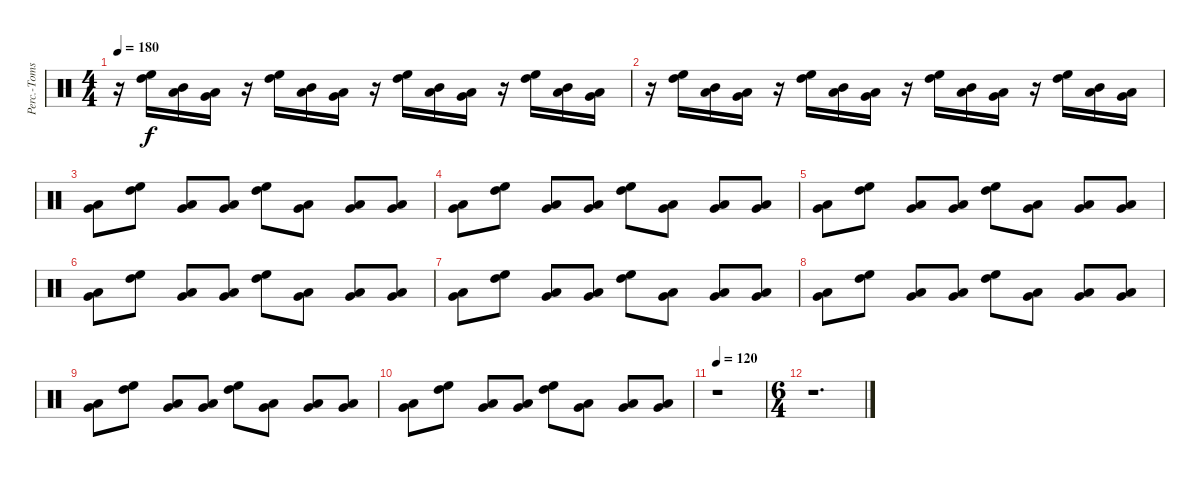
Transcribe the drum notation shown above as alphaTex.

\track ("Perc.-Toms " "Perc.-Toms") {instrument percussion}
\staff {score}
\articulation defaults
\ts (4 4)
\tempo 180
\clef neutral
\ks c
r.16{dy f} ("High Floor Tom (hit)" "High Tom (hit)").16 ("Mid Tom (hit)" "Low Tom (hit)").16 ("Very Low Tom (hit)" "Low Floor Tom (hit)").16 r.16 ("High Floor Tom (hit)" "High Tom (hit)").16 ("Mid Tom (hit)" "Low Tom (hit)").16 ("Very Low Tom (hit)" "Low Floor Tom (hit)").16 r.16 ("High Floor Tom (hit)" "High Tom (hit)").16 ("Mid Tom (hit)" "Low Tom (hit)").16 ("Very Low Tom (hit)" "Low Floor Tom (hit)").16 r.16 ("High Floor Tom (hit)" "High Tom (hit)").16 ("Mid Tom (hit)" "Low Tom (hit)").16 ("Very Low Tom (hit)" "Low Floor Tom (hit)").16 |
r.16 ("High Floor Tom (hit)" "High Tom (hit)").16 ("Mid Tom (hit)" "Low Tom (hit)").16 ("Very Low Tom (hit)" "Low Floor Tom (hit)").16 r.16 ("High Floor Tom (hit)" "High Tom (hit)").16 ("Mid Tom (hit)" "Low Tom (hit)").16 ("Very Low Tom (hit)" "Low Floor Tom (hit)").16 r.16 ("High Floor Tom (hit)" "High Tom (hit)").16 ("Mid Tom (hit)" "Low Tom (hit)").16 ("Very Low Tom (hit)" "Low Floor Tom (hit)").16 r.16 ("High Floor Tom (hit)" "High Tom (hit)").16 ("Mid Tom (hit)" "Low Tom (hit)").16 ("Very Low Tom (hit)" "Low Floor Tom (hit)").16 |
("Very Low Tom (hit)" "Low Floor Tom (hit)").8 ("High Floor Tom (hit)" "High Tom (hit)").8 ("Very Low Tom (hit)" "Low Floor Tom (hit)").8 ("Very Low Tom (hit)" "Low Floor Tom (hit)").8 ("High Floor Tom (hit)" "High Tom (hit)").8 ("Very Low Tom (hit)" "Low Floor Tom (hit)").8 ("Very Low Tom (hit)" "Low Floor Tom (hit)").8 ("Very Low Tom (hit)" "Low Floor Tom (hit)").8 |
("Very Low Tom (hit)" "Low Floor Tom (hit)").8 ("High Floor Tom (hit)" "High Tom (hit)").8 ("Very Low Tom (hit)" "Low Floor Tom (hit)").8 ("Very Low Tom (hit)" "Low Floor Tom (hit)").8 ("High Floor Tom (hit)" "High Tom (hit)").8 ("Very Low Tom (hit)" "Low Floor Tom (hit)").8 ("Very Low Tom (hit)" "Low Floor Tom (hit)").8 ("Very Low Tom (hit)" "Low Floor Tom (hit)").8 |
("Very Low Tom (hit)" "Low Floor Tom (hit)").8 ("High Floor Tom (hit)" "High Tom (hit)").8 ("Very Low Tom (hit)" "Low Floor Tom (hit)").8 ("Very Low Tom (hit)" "Low Floor Tom (hit)").8 ("High Floor Tom (hit)" "High Tom (hit)").8 ("Very Low Tom (hit)" "Low Floor Tom (hit)").8 ("Very Low Tom (hit)" "Low Floor Tom (hit)").8 ("Very Low Tom (hit)" "Low Floor Tom (hit)").8 |
("Very Low Tom (hit)" "Low Floor Tom (hit)").8 ("High Floor Tom (hit)" "High Tom (hit)").8 ("Very Low Tom (hit)" "Low Floor Tom (hit)").8 ("Very Low Tom (hit)" "Low Floor Tom (hit)").8 ("High Floor Tom (hit)" "High Tom (hit)").8 ("Very Low Tom (hit)" "Low Floor Tom (hit)").8 ("Very Low Tom (hit)" "Low Floor Tom (hit)").8 ("Very Low Tom (hit)" "Low Floor Tom (hit)").8 |
("Very Low Tom (hit)" "Low Floor Tom (hit)").8 ("High Floor Tom (hit)" "High Tom (hit)").8 ("Very Low Tom (hit)" "Low Floor Tom (hit)").8 ("Very Low Tom (hit)" "Low Floor Tom (hit)").8 ("High Floor Tom (hit)" "High Tom (hit)").8 ("Very Low Tom (hit)" "Low Floor Tom (hit)").8 ("Very Low Tom (hit)" "Low Floor Tom (hit)").8 ("Very Low Tom (hit)" "Low Floor Tom (hit)").8 |
("Very Low Tom (hit)" "Low Floor Tom (hit)").8 ("High Floor Tom (hit)" "High Tom (hit)").8 ("Very Low Tom (hit)" "Low Floor Tom (hit)").8 ("Very Low Tom (hit)" "Low Floor Tom (hit)").8 ("High Floor Tom (hit)" "High Tom (hit)").8 ("Very Low Tom (hit)" "Low Floor Tom (hit)").8 ("Very Low Tom (hit)" "Low Floor Tom (hit)").8 ("Very Low Tom (hit)" "Low Floor Tom (hit)").8 |
("Very Low Tom (hit)" "Low Floor Tom (hit)").8 ("High Floor Tom (hit)" "High Tom (hit)").8 ("Very Low Tom (hit)" "Low Floor Tom (hit)").8 ("Very Low Tom (hit)" "Low Floor Tom (hit)").8 ("High Floor Tom (hit)" "High Tom (hit)").8 ("Very Low Tom (hit)" "Low Floor Tom (hit)").8 ("Very Low Tom (hit)" "Low Floor Tom (hit)").8 ("Very Low Tom (hit)" "Low Floor Tom (hit)").8 |
("Very Low Tom (hit)" "Low Floor Tom (hit)").8 ("High Floor Tom (hit)" "High Tom (hit)").8 ("Very Low Tom (hit)" "Low Floor Tom (hit)").8 ("Very Low Tom (hit)" "Low Floor Tom (hit)").8 ("High Floor Tom (hit)" "High Tom (hit)").8 ("Very Low Tom (hit)" "Low Floor Tom (hit)").8 ("Very Low Tom (hit)" "Low Floor Tom (hit)").8 ("Very Low Tom (hit)" "Low Floor Tom (hit)").8 |
\tempo 120
r.1 |
\ts (6 4)
r.1{d}
